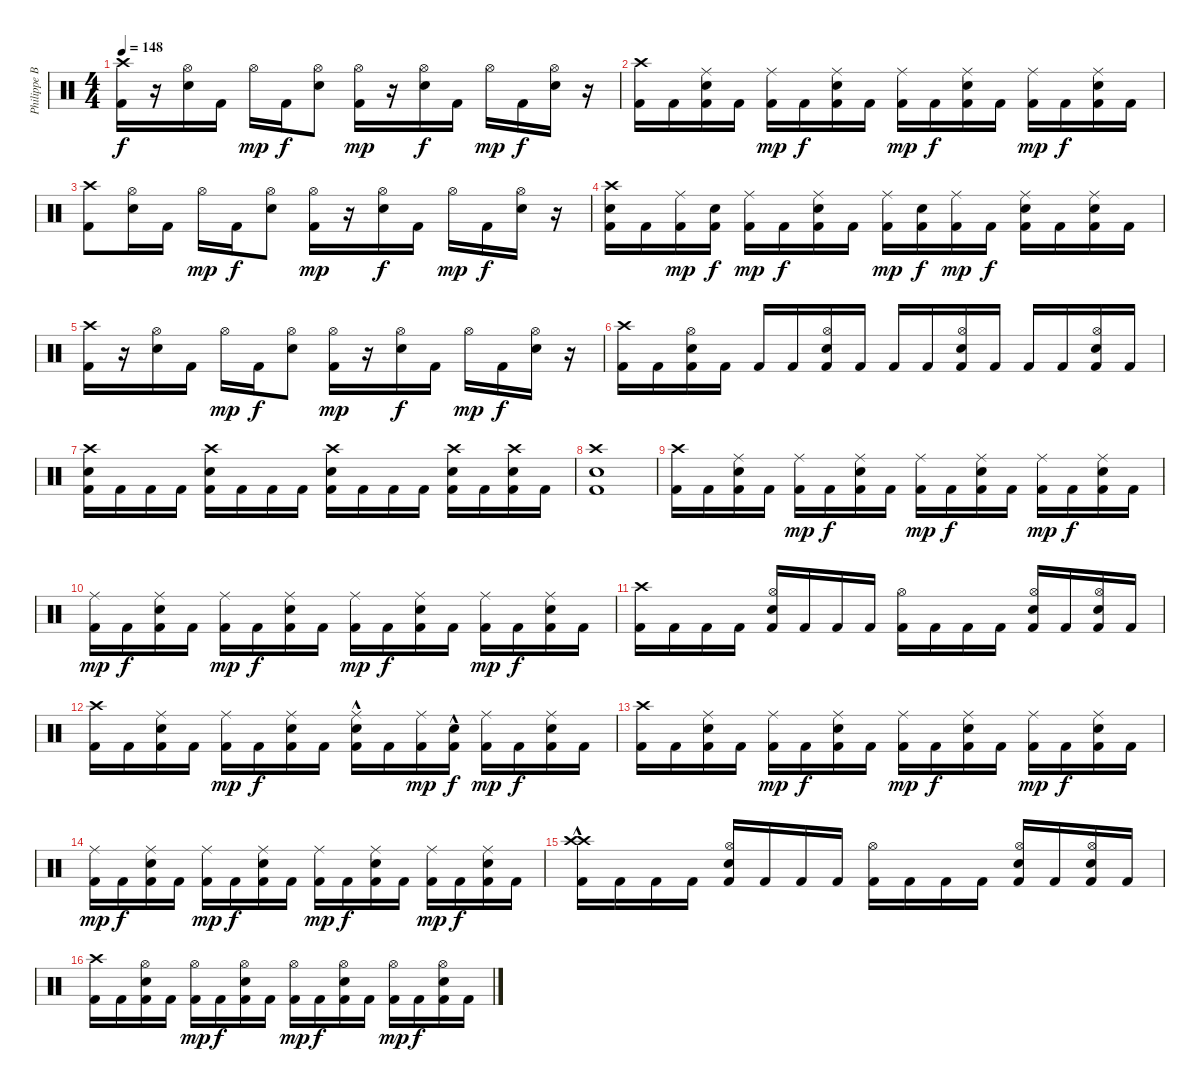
\track ("Philippe Borda" "Philippe B") {instrument percussion}
\staff {score}
\articulation defaults
\ts (4 4)
\tempo 148
\clef neutral
\ks c
("Crash high (hit)" "Kick (hit) 2").16{dy f} r.16 ("Hi-Hat (open)" "Snare (hit) 2").16 "Kick (hit) 2".16 "Hi-Hat (open)".16{dy mp} "Kick (hit) 2".16{dy f} ("Hi-Hat (open)" "Snare (hit) 2").8 ("Hi-Hat (open)" "Kick (hit) 2").16{dy mp} r.16 ("Hi-Hat (open)" "Snare (hit) 2").16{dy f} "Kick (hit) 2".16 "Hi-Hat (open)".16{dy mp} "Kick (hit) 2".16{dy f} ("Hi-Hat (open)" "Snare (hit) 2").16 r.16 |
("Crash high (hit)" "Kick (hit) 2").16 "Kick (hit) 2".16 ("Kick (hit) 2" "Ride (middle)" "Snare (hit) 2").16 "Kick (hit) 2".16 ("Kick (hit) 2" "Ride (middle)").16{dy mp} "Kick (hit) 2".16{dy f} ("Kick (hit) 2" "Ride (middle)" "Snare (hit) 2").16 "Kick (hit) 2".16 ("Kick (hit) 2" "Ride (middle)").16{dy mp} "Kick (hit) 2".16{dy f} ("Kick (hit) 2" "Ride (middle)" "Snare (hit) 2").16 "Kick (hit) 2".16 ("Kick (hit) 2" "Ride (middle)").16{dy mp} "Kick (hit) 2".16{dy f} ("Kick (hit) 2" "Ride (middle)" "Snare (hit) 2").16 "Kick (hit) 2".16 |
("Crash high (hit)" "Kick (hit) 2").8 ("Snare (hit) 2" "Hi-Hat (open)").16 "Kick (hit) 2".16 "Hi-Hat (open)".16{dy mp} "Kick (hit) 2".16{dy f} ("Snare (hit) 2" "Hi-Hat (open)").8 ("Kick (hit) 2" "Hi-Hat (open)").16{dy mp} r.16 ("Snare (hit) 2" "Hi-Hat (open)").16{dy f} "Kick (hit) 2".16 "Hi-Hat (open)".16{dy mp} "Kick (hit) 2".16{dy f} ("Snare (hit) 2" "Hi-Hat (open)").16 r.16 |
("Crash high (hit)" "Kick (hit) 2" "Snare (hit) 2").16 "Kick (hit) 2".16 ("Kick (hit) 2" "Ride (middle)").16{dy mp} ("Snare (hit) 2" "Kick (hit) 2").16{dy f} ("Kick (hit) 2" "Ride (middle)").16{dy mp} "Kick (hit) 2".16{dy f} ("Kick (hit) 2" "Snare (hit) 2" "Ride (middle)").16 "Kick (hit) 2".16 ("Kick (hit) 2" "Ride (middle)").16{dy mp} ("Snare (hit) 2" "Kick (hit) 2").16{dy f} ("Kick (hit) 2" "Ride (middle)").16{dy mp} "Kick (hit) 2".16{dy f} ("Kick (hit) 2" "Snare (hit) 2" "Ride (middle)").16 "Kick (hit) 2".16 ("Kick (hit) 2" "Snare (hit) 2" "Ride (middle)").16 "Kick (hit) 2".16 |
("Crash high (hit)" "Kick (hit) 2").16 r.16 ("Snare (hit) 2" "Hi-Hat (open)").16 "Kick (hit) 2".16 "Hi-Hat (open)".16{dy mp} "Kick (hit) 2".16{dy f} ("Snare (hit) 2" "Hi-Hat (open)").8 ("Kick (hit) 2" "Hi-Hat (open)").16{dy mp} r.16 ("Snare (hit) 2" "Hi-Hat (open)").16{dy f} "Kick (hit) 2".16 "Hi-Hat (open)".16{dy mp} "Kick (hit) 2".16{dy f} ("Snare (hit) 2" "Hi-Hat (open)").16 r.16 |
("Crash high (hit)" "Kick (hit) 2").16 "Kick (hit) 2".16 ("Kick (hit) 2" "Snare (hit) 2" "Hi-Hat (open)").16 "Kick (hit) 2".16 "Kick (hit) 2".16 "Kick (hit) 2".16 ("Kick (hit) 2" "Snare (hit) 2" "Hi-Hat (open)").16 "Kick (hit) 2".16 "Kick (hit) 2".16 "Kick (hit) 2".16 ("Kick (hit) 2" "Snare (hit) 2" "Hi-Hat (open)").16 "Kick (hit) 2".16 "Kick (hit) 2".16 "Kick (hit) 2".16 ("Kick (hit) 2" "Snare (hit) 2" "Hi-Hat (open)").16 "Kick (hit) 2".16 |
("Crash high (hit)" "Kick (hit) 2" "Snare (hit) 2").16 "Kick (hit) 2".16 "Kick (hit) 2".16 "Kick (hit) 2".16 ("Crash high (hit)" "Kick (hit) 2" "Snare (hit) 2").16 "Kick (hit) 2".16 "Kick (hit) 2".16 "Kick (hit) 2".16 ("Crash high (hit)" "Kick (hit) 2" "Snare (hit) 2").16 "Kick (hit) 2".16 "Kick (hit) 2".16 "Kick (hit) 2".16 ("Crash high (hit)" "Kick (hit) 2" "Snare (hit) 2").16 "Kick (hit) 2".16 ("Crash high (hit)" "Kick (hit) 2" "Snare (hit) 2").16 "Kick (hit) 2".16 |
("Crash high (hit)" "Kick (hit) 2" "Snare (hit) 2").1 |
("Crash high (hit)" "Kick (hit) 2").16 "Kick (hit) 2".16 ("Kick (hit) 2" "Ride (middle)" "Snare (hit) 2").16 "Kick (hit) 2".16 ("Kick (hit) 2" "Ride (middle)").16{dy mp} "Kick (hit) 2".16{dy f} ("Kick (hit) 2" "Ride (middle)" "Snare (hit) 2").16 "Kick (hit) 2".16 ("Kick (hit) 2" "Ride (middle)").16{dy mp} "Kick (hit) 2".16{dy f} ("Kick (hit) 2" "Ride (middle)" "Snare (hit) 2").16 "Kick (hit) 2".16 ("Kick (hit) 2" "Ride (middle)").16{dy mp} "Kick (hit) 2".16{dy f} ("Kick (hit) 2" "Snare (hit) 2" "Ride (middle)").16 "Kick (hit) 2".16 |
("Kick (hit) 2" "Ride (middle)").16{dy mp} "Kick (hit) 2".16{dy f} ("Kick (hit) 2" "Snare (hit) 2" "Ride (middle)").16 "Kick (hit) 2".16 ("Kick (hit) 2" "Ride (middle)").16{dy mp} "Kick (hit) 2".16{dy f} ("Kick (hit) 2" "Snare (hit) 2" "Ride (middle)").16 "Kick (hit) 2".16 ("Kick (hit) 2" "Ride (middle)").16{dy mp} "Kick (hit) 2".16{dy f} ("Kick (hit) 2" "Snare (hit) 2" "Ride (middle)").16 "Kick (hit) 2".16 ("Kick (hit) 2" "Ride (middle)").16{dy mp} "Kick (hit) 2".16{dy f} ("Kick (hit) 2" "Snare (hit) 2" "Ride (middle)").16 "Kick (hit) 2".16 |
("Crash high (hit)" "Kick (hit) 2").16 "Kick (hit) 2".16 "Kick (hit) 2".16 "Kick (hit) 2".16 ("Kick (hit) 2" "Snare (hit) 2" "Hi-Hat (open)").16 "Kick (hit) 2".16 "Kick (hit) 2".16 "Kick (hit) 2".16 ("Kick (hit) 2" "Hi-Hat (open)").16 "Kick (hit) 2".16 "Kick (hit) 2".16 "Kick (hit) 2".16 ("Kick (hit) 2" "Hi-Hat (open)" "Snare (hit) 2").16 "Kick (hit) 2".16 ("Kick (hit) 2" "Hi-Hat (open)" "Snare (hit) 2").16 "Kick (hit) 2".16 |
("Crash high (hit)" "Kick (hit) 2").16 "Kick (hit) 2".16 ("Kick (hit) 2" "Snare (hit) 2" "Ride (middle)").16 "Kick (hit) 2".16 ("Kick (hit) 2" "Ride (middle)").16{dy mp} "Kick (hit) 2".16{dy f} ("Kick (hit) 2" "Snare (hit) 2" "Ride (middle)").16 "Kick (hit) 2".16 ("Kick (hit) 2" "Snare (hit) 2"{hac} "Ride (middle)").16 "Kick (hit) 2".16 ("Kick (hit) 2" "Ride (middle)").16{dy mp} ("Snare (hit) 2"{hac} "Kick (hit) 2").16{dy f} ("Kick (hit) 2" "Ride (middle)").16{dy mp} "Kick (hit) 2".16{dy f} ("Kick (hit) 2" "Snare (hit) 2" "Ride (middle)").16 "Kick (hit) 2".16 |
("Crash high (hit)" "Kick (hit) 2").16 "Kick (hit) 2".16 ("Kick (hit) 2" "Snare (hit) 2" "Ride (middle)").16 "Kick (hit) 2".16 ("Kick (hit) 2" "Ride (middle)").16{dy mp} "Kick (hit) 2".16{dy f} ("Kick (hit) 2" "Snare (hit) 2" "Ride (middle)").16 "Kick (hit) 2".16 ("Kick (hit) 2" "Ride (middle)").16{dy mp} "Kick (hit) 2".16{dy f} ("Kick (hit) 2" "Snare (hit) 2" "Ride (middle)").16 "Kick (hit) 2".16 ("Kick (hit) 2" "Ride (middle)").16{dy mp} "Kick (hit) 2".16{dy f} ("Kick (hit) 2" "Snare (hit) 2" "Ride (middle)").16 "Kick (hit) 2".16 |
("Kick (hit) 2" "Ride (middle)").16{dy mp} "Kick (hit) 2".16{dy f} ("Kick (hit) 2" "Snare (hit) 2" "Ride (middle)").16 "Kick (hit) 2".16 ("Kick (hit) 2" "Ride (middle)").16{dy mp} "Kick (hit) 2".16{dy f} ("Kick (hit) 2" "Snare (hit) 2" "Ride (middle)").16 "Kick (hit) 2".16 ("Kick (hit) 2" "Ride (middle)").16{dy mp} "Kick (hit) 2".16{dy f} ("Kick (hit) 2" "Snare (hit) 2" "Ride (middle)").16 "Kick (hit) 2".16 ("Kick (hit) 2" "Ride (middle)").16{dy mp} "Kick (hit) 2".16{dy f} ("Kick (hit) 2" "Snare (hit) 2" "Ride (middle)").16 "Kick (hit) 2".16 |
("Crash high (hit)" "Kick (hit) 2" "Crash high (hit)"{hac}).16 "Kick (hit) 2".16 "Kick (hit) 2".16 "Kick (hit) 2".16 ("Kick (hit) 2" "Snare (hit) 2" "Hi-Hat (open)").16 "Kick (hit) 2".16 "Kick (hit) 2".16 "Kick (hit) 2".16 ("Kick (hit) 2" "Hi-Hat (open)").16 "Kick (hit) 2".16 "Kick (hit) 2".16 "Kick (hit) 2".16 ("Kick (hit) 2" "Snare (hit) 2" "Hi-Hat (open)").16 "Kick (hit) 2".16 ("Kick (hit) 2" "Hi-Hat (open)" "Snare (hit) 2").16 "Kick (hit) 2".16 |
("Crash high (hit)" "Kick (hit) 2").16 "Kick (hit) 2".16 ("Kick (hit) 2" "Snare (hit) 2" "Hi-Hat (open)").16 "Kick (hit) 2".16 ("Kick (hit) 2" "Hi-Hat (open)").16{dy mp} "Kick (hit) 2".16{dy f} ("Kick (hit) 2" "Snare (hit) 2" "Hi-Hat (open)").16 "Kick (hit) 2".16 ("Kick (hit) 2" "Hi-Hat (open)").16{dy mp} "Kick (hit) 2".16{dy f} ("Kick (hit) 2" "Snare (hit) 2" "Hi-Hat (open)").16 "Kick (hit) 2".16 ("Kick (hit) 2" "Hi-Hat (open)").16{dy mp} "Kick (hit) 2".16{dy f} ("Kick (hit) 2" "Snare (hit) 2" "Hi-Hat (open)").16 "Kick (hit) 2".16
